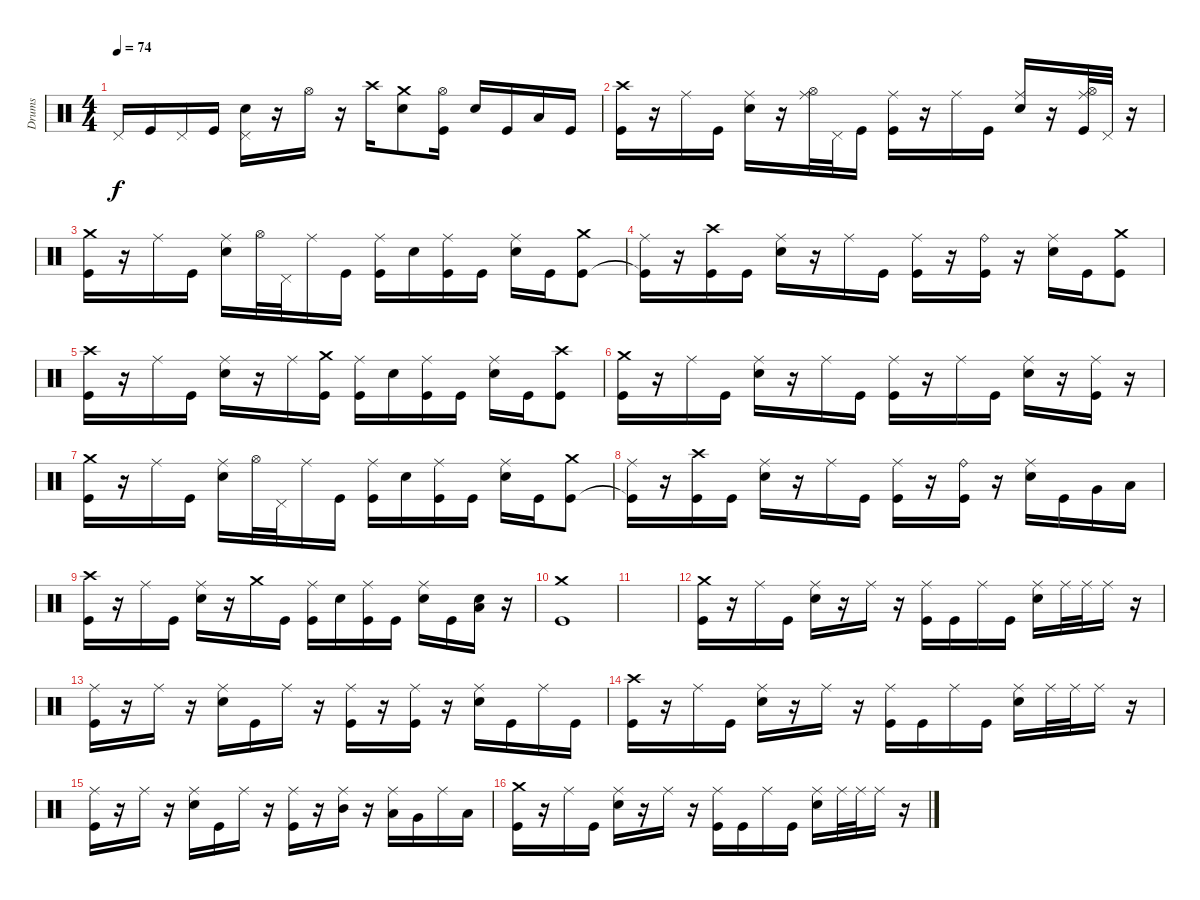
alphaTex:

\track ("Drums" "Drums") {instrument percussion}
\staff {score}
\articulation defaults
\ts (4 4)
\tempo 74
\clef neutral
\ks c "Pedal Hi-Hat (hit)".16{dy f} "Kick (hit)".16 "Pedal Hi-Hat (hit)".16 "Kick (hit)".16
("Pedal Hi-Hat (hit)" "Electric Snare (hit)").16 r.16 "Hi-Hat (open)".16 r.16 "Crash high (hit)".16 ("Crash medium (hit)" "Electric Snare (hit)").8 ("Hi-Hat (open)" "Kick (hit)").16 "Electric Snare (hit)".16 "Kick (hit)".16 "Low Tom (hit)".16 "Kick (hit)".16 |
("Crash high (hit)" "Kick (hit)").16 r.16 "Ride (middle)".16 "Kick (hit)".16 ("Ride (middle)" "Electric Snare (hit)").16 r.16 ("Ride (middle)" "Hi-Hat (open)").32 "Pedal Hi-Hat (hit)".32 "Kick (hit)".16 ("Ride (middle)" "Kick (hit)").16 r.16 "Ride (middle)".16 "Kick (hit)".16 ("Ride (middle)" "Electric Snare (hit)").16 r.16 ("Ride (middle)" "Kick (hit)" "Hi-Hat (open)").32 "Pedal Hi-Hat (hit)".32 r.16 |
("Crash medium (hit)" "Kick (hit)").16 r.16 "Ride (middle)".16 "Kick (hit)".16 ("Ride (middle)" "Electric Snare (hit)").16 "Hi-Hat (open)".32 "Pedal Hi-Hat (hit)".32 "Ride (middle)".16 "Kick (hit)".16 ("Ride (middle)" "Kick (hit)").16 "Electric Snare (hit)".16 ("Ride (middle)" "Kick (hit)").16 "Kick (hit)".16 ("Ride (middle)" "Electric Snare (hit)").16 "Kick (hit)".16 ("Crash medium (hit)" "Kick (hit)").8 |
("Ride (middle)" "Kick (hit)"{t}).16 r.16 ("Crash high (hit)" "Kick (hit)").16 "Kick (hit)".16 ("Ride (middle)" "Electric Snare (hit)").16 r.16 "Ride (middle)".16 "Kick (hit)".16 ("Ride (middle)" "Kick (hit)").16 r.16 ("Ride (bell)" "Kick (hit)").16 r.16 ("Ride (middle)" "Electric Snare (hit)").16 "Kick (hit)".16 ("Crash medium (hit)" "Kick (hit)").8 |
("Crash high (hit)" "Kick (hit)").16 r.16 "Ride (middle)".16 "Kick (hit)".16 ("Ride (middle)" "Electric Snare (hit)").16 r.16 "Ride (middle)".16 ("Crash medium (hit)" "Kick (hit)").16 ("Ride (middle)" "Kick (hit)").16 "Electric Snare (hit)".16 ("Ride (middle)" "Kick (hit)").16 "Kick (hit)".16 ("Ride (middle)" "Electric Snare (hit)").16 "Kick (hit)".16 ("Crash high (hit)" "Kick (hit)").8 |
("Crash medium (hit)" "Kick (hit)").16 r.16 "Ride (middle)".16 "Kick (hit)".16 ("Ride (middle)" "Electric Snare (hit)").16 r.16 "Ride (middle)".16 "Kick (hit)".16 ("Ride (middle)" "Kick (hit)").16 r.16 "Ride (middle)".16 "Kick (hit)".16 ("Ride (middle)" "Electric Snare (hit)").16 r.16 ("Ride (middle)" "Kick (hit)").16 r.16 |
("Crash medium (hit)" "Kick (hit)").16 r.16 "Ride (middle)".16 "Kick (hit)".16 ("Ride (middle)" "Electric Snare (hit)").16 "Hi-Hat (open)".32 "Pedal Hi-Hat (hit)".32 "Ride (middle)".16 "Kick (hit)".16 ("Ride (middle)" "Kick (hit)").16 "Electric Snare (hit)".16 ("Ride (middle)" "Kick (hit)").16 "Kick (hit)".16 ("Ride (middle)" "Electric Snare (hit)").16 "Kick (hit)".16 ("Crash medium (hit)" "Kick (hit)").8 |
("Ride (middle)" "Kick (hit)"{t}).16 r.16 ("Crash high (hit)" "Kick (hit)").16 "Kick (hit)".16 ("Ride (middle)" "Electric Snare (hit)").16 r.16 "Ride (middle)".16 "Kick (hit)".16 ("Ride (middle)" "Kick (hit)").16 r.16 ("Ride (bell)" "Kick (hit)").16 r.16 ("Ride (middle)" "Electric Snare (hit)").16 "Kick (hit)".16 "Very Low Tom (hit)".16 "Low Floor Tom (hit)".16 |
("Crash high (hit)" "Kick (hit)").16 r.16 "Ride (middle)".16 "Kick (hit)".16 ("Ride (middle)" "Electric Snare (hit)").16 r.16 "Crash medium (hit)".16 "Kick (hit)".16 ("Ride (middle)" "Kick (hit)").16 "Electric Snare (hit)".16 ("Ride (middle)" "Kick (hit)").16 "Kick (hit)".16 ("Ride (middle)" "Electric Snare (hit)").16 "Kick (hit)".16 ("Electric Snare (hit)" "Low Floor Tom (hit)").16 r.16 |
("Crash medium (hit)" "Kick (hit)").1 |
|
("Crash medium (hit)" "Kick (hit)").16 r.16 "Ride (middle)".16 "Kick (hit)".16 ("Ride (middle)" "Electric Snare (hit)").16 r.16 "Ride (middle)".16 r.16 ("Ride (middle)" "Kick (hit)").16 "Kick (hit)".16 "Ride (middle)".16 "Kick (hit)".16 ("Ride (middle)" "Electric Snare (hit)").16 "Ride (middle)".32 "Ride (middle)".32 "Ride (middle)".16 r.16 |
("Ride (middle)" "Kick (hit)").16 r.16 "Ride (middle)".16 r.16 ("Ride (middle)" "Electric Snare (hit)").16 "Kick (hit)".16 "Ride (middle)".16 r.16 ("Ride (middle)" "Kick (hit)").16 r.16 ("Ride (middle)" "Kick (hit)").16 r.16 ("Ride (middle)" "Electric Snare (hit)").16 "Kick (hit)".16 "Ride (middle)".16 "Kick (hit)".16 |
("Crash high (hit)" "Kick (hit)").16 r.16 "Ride (middle)".16 "Kick (hit)".16 ("Ride (middle)" "Electric Snare (hit)").16 r.16 "Ride (middle)".16 r.16 ("Ride (middle)" "Kick (hit)").16 "Kick (hit)".16 "Ride (middle)".16 "Kick (hit)".16 ("Ride (middle)" "Electric Snare (hit)").16 "Ride (middle)".32 "Ride (middle)".32 "Ride (middle)".16 r.16 |
("Ride (middle)" "Kick (hit)").16 r.16 "Ride (middle)".16 r.16 ("Ride (middle)" "Electric Snare (hit)").16 "Kick (hit)".16 "Ride (middle)".16 r.16 ("Ride (middle)" "Kick (hit)").16 r.16 ("Ride (middle)" "Mid Tom (hit)").16 r.16 ("Ride (middle)" "Low Tom (hit)").16 "Very Low Tom (hit)".16 "Ride (middle)".16 "Low Floor Tom (hit)".16 |
("Crash medium (hit)" "Kick (hit)").16 r.16 "Ride (middle)".16 "Kick (hit)".16 ("Ride (middle)" "Electric Snare (hit)").16 r.16 "Ride (middle)".16 r.16 ("Ride (middle)" "Kick (hit)").16 "Kick (hit)".16 "Ride (middle)".16 "Kick (hit)".16 ("Ride (middle)" "Electric Snare (hit)").16 "Ride (middle)".32 "Ride (middle)".32 "Ride (middle)".16 r.16
